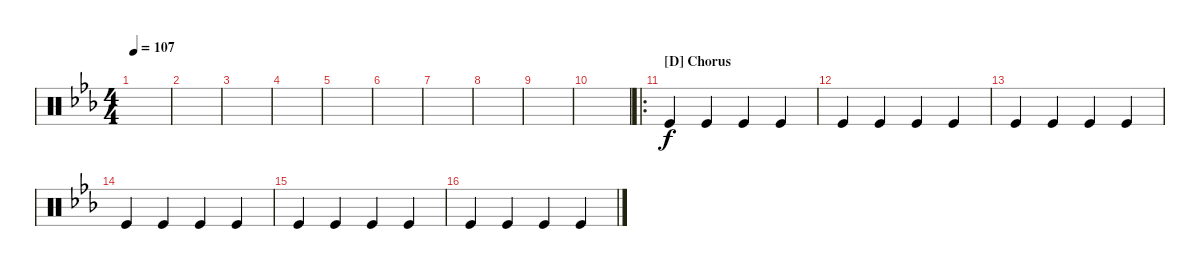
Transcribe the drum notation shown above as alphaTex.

\defaultSystemsLayout 4
\bracketExtendMode groupsimilarinstruments
\singleTrackTrackNamePolicy hidden
\firstSystemTrackNameOrientation horizontal
\otherSystemsTrackNameOrientation horizontal
\chordDiagramsInScore
\track ("Tambourine" "Tamb.") {instrument percussion}
\staff {score}
\articulation defaults
\ts (4 4)
\tempo 107
\clef neutral
\ks cminor
|
|
|
|
|
|
|
|
|
|
\ro
\section ("D" "Chorus")
"Kick (hit)".4 "Kick (hit)".4 "Kick (hit)".4 "Kick (hit)".4 |
"Kick (hit)".4 "Kick (hit)".4 "Kick (hit)".4 "Kick (hit)".4 |
"Kick (hit)".4 "Kick (hit)".4 "Kick (hit)".4 "Kick (hit)".4 |
"Kick (hit)".4 "Kick (hit)".4 "Kick (hit)".4 "Kick (hit)".4 |
"Kick (hit)".4 "Kick (hit)".4 "Kick (hit)".4 "Kick (hit)".4 |
"Kick (hit)".4 "Kick (hit)".4 "Kick (hit)".4 "Kick (hit)".4
